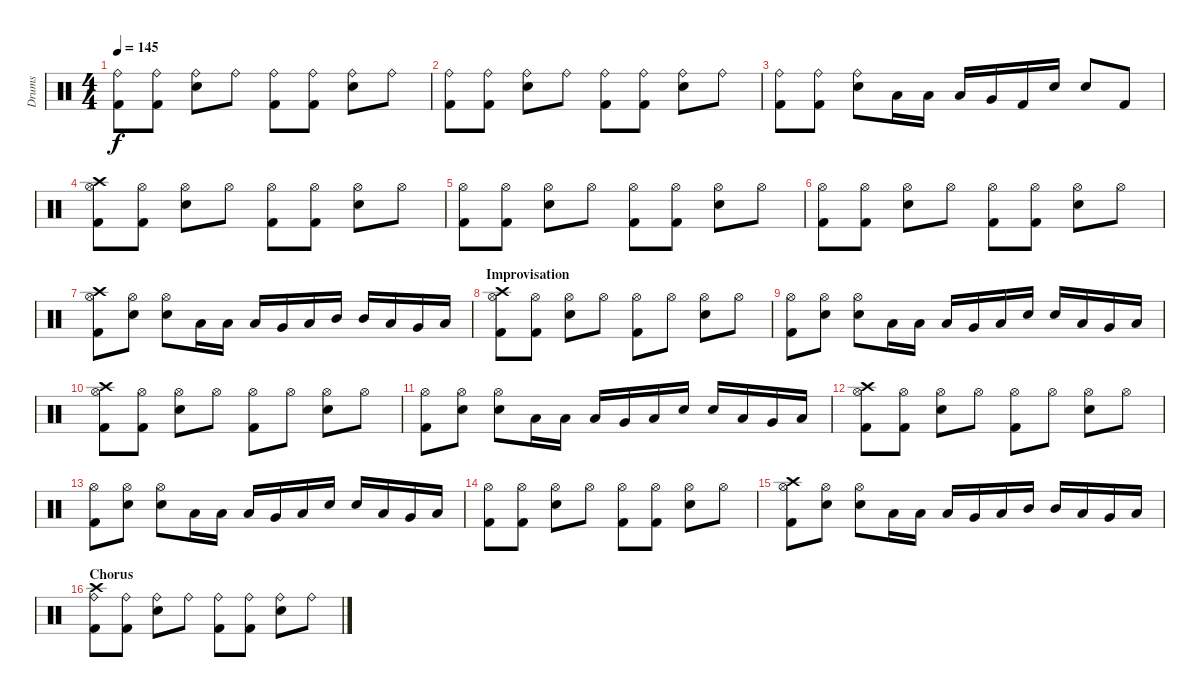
\track ("Drums" "Drums") {instrument percussion}
\staff {score}
\articulation defaults
\ts (4 4)
\tempo 145
\clef neutral
\ks c
("Ride (bell)" "Kick (hit) 2").8{dy f} ("Ride (bell)" "Kick (hit) 2").8 ("Ride (bell)" "Electric Snare (hit)").8 "Ride (bell)".8 ("Ride (bell)" "Kick (hit) 2").8 ("Ride (bell)" "Kick (hit) 2").8 ("Ride (bell)" "Electric Snare (hit)").8 "Ride (bell)".8 |
("Ride (bell)" "Kick (hit) 2").8 ("Ride (bell)" "Kick (hit) 2").8 ("Ride (bell)" "Electric Snare (hit)").8 "Ride (bell)".8 ("Ride (bell)" "Kick (hit) 2").8 ("Ride (bell)" "Kick (hit) 2").8 ("Ride (bell)" "Electric Snare (hit)").8 "Ride (bell)".8 |
("Ride (bell)" "Kick (hit) 2").8 ("Ride (bell)" "Kick (hit) 2").8 ("Ride (bell)" "Electric Snare (hit)").8 "Low Floor Tom (hit)".16 "Low Floor Tom (hit)".16 "Low Floor Tom (hit)".16 "Very Low Tom (hit)".16 "Kick (hit) 2".16 "Electric Snare (hit)".16 "Electric Snare (hit)".8 "Kick (hit) 2".8 |
("Crash high (hit)" "Hi-Hat (open)" "Kick (hit) 2").8 ("Hi-Hat (open)" "Kick (hit) 2").8 ("Hi-Hat (open)" "Electric Snare (hit)").8 "Hi-Hat (open)".8 ("Hi-Hat (open)" "Kick (hit) 2").8 ("Hi-Hat (open)" "Kick (hit) 2").8 ("Hi-Hat (open)" "Electric Snare (hit)").8 "Hi-Hat (open)".8 |
("Hi-Hat (open)" "Kick (hit) 2").8 ("Hi-Hat (open)" "Kick (hit) 2").8 ("Hi-Hat (open)" "Electric Snare (hit)").8 "Hi-Hat (open)".8 ("Hi-Hat (open)" "Kick (hit) 2").8 ("Hi-Hat (open)" "Kick (hit) 2").8 ("Hi-Hat (open)" "Electric Snare (hit)").8 "Hi-Hat (open)".8 |
("Hi-Hat (open)" "Kick (hit) 2").8 ("Hi-Hat (open)" "Kick (hit) 2").8 ("Hi-Hat (open)" "Electric Snare (hit)").8 "Hi-Hat (open)".8 ("Hi-Hat (open)" "Kick (hit) 2").8 ("Hi-Hat (open)" "Kick (hit) 2").8 ("Hi-Hat (open)" "Electric Snare (hit)").8 "Hi-Hat (open)".8 |
("Crash high (hit)" "Hi-Hat (open)" "Kick (hit) 2").8 ("Hi-Hat (open)" "Electric Snare (hit)").8 ("Hi-Hat (open)" "Electric Snare (hit)").8 "Low Floor Tom (hit)".16 "Low Floor Tom (hit)".16 "Low Floor Tom (hit)".16 "Very Low Tom (hit)".16 "Low Tom (hit)".16 "Mid Tom (hit)".16 "Mid Tom (hit)".16 "Low Tom (hit)".16 "Very Low Tom (hit)".16 "Low Floor Tom (hit)".16 |
\section ("" "Improvisation")
("Crash high (hit)" "Hi-Hat (open)" "Kick (hit) 2").8 ("Hi-Hat (open)" "Kick (hit) 2").8 ("Hi-Hat (open)" "Electric Snare (hit)").8 "Hi-Hat (open)".8 ("Hi-Hat (open)" "Kick (hit) 2").8 "Hi-Hat (open)".8 ("Hi-Hat (open)" "Electric Snare (hit)").8 "Hi-Hat (open)".8 |
("Hi-Hat (open)" "Kick (hit) 2").8 ("Hi-Hat (open)" "Electric Snare (hit)").8 ("Hi-Hat (open)" "Electric Snare (hit)").8 "Low Floor Tom (hit)".16 "Low Floor Tom (hit)".16 "Low Floor Tom (hit)".16 "Very Low Tom (hit)".16 "Low Tom (hit)".16 "Electric Snare (hit)".16 "Electric Snare (hit)".16 "Low Tom (hit)".16 "Very Low Tom (hit)".16 "Low Floor Tom (hit)".16 |
("Crash high (hit)" "Hi-Hat (open)" "Kick (hit) 2").8 ("Hi-Hat (open)" "Kick (hit) 2").8 ("Hi-Hat (open)" "Electric Snare (hit)").8 "Hi-Hat (open)".8 ("Hi-Hat (open)" "Kick (hit) 2").8 "Hi-Hat (open)".8 ("Hi-Hat (open)" "Electric Snare (hit)").8 "Hi-Hat (open)".8 |
("Hi-Hat (open)" "Kick (hit) 2").8 ("Hi-Hat (open)" "Electric Snare (hit)").8 ("Hi-Hat (open)" "Electric Snare (hit)").8 "Low Floor Tom (hit)".16 "Low Floor Tom (hit)".16 "Low Floor Tom (hit)".16 "Very Low Tom (hit)".16 "Low Tom (hit)".16 "Electric Snare (hit)".16 "Electric Snare (hit)".16 "Low Tom (hit)".16 "Very Low Tom (hit)".16 "Low Floor Tom (hit)".16 |
("Crash high (hit)" "Hi-Hat (open)" "Kick (hit) 2").8 ("Hi-Hat (open)" "Kick (hit) 2").8 ("Hi-Hat (open)" "Electric Snare (hit)").8 "Hi-Hat (open)".8 ("Hi-Hat (open)" "Kick (hit) 2").8 "Hi-Hat (open)".8 ("Hi-Hat (open)" "Electric Snare (hit)").8 "Hi-Hat (open)".8 |
("Hi-Hat (open)" "Kick (hit) 2").8 ("Hi-Hat (open)" "Electric Snare (hit)").8 ("Hi-Hat (open)" "Electric Snare (hit)").8 "Low Floor Tom (hit)".16 "Low Floor Tom (hit)".16 "Low Floor Tom (hit)".16 "Very Low Tom (hit)".16 "Low Tom (hit)".16 "Electric Snare (hit)".16 "Electric Snare (hit)".16 "Low Tom (hit)".16 "Very Low Tom (hit)".16 "Low Floor Tom (hit)".16 |
("Hi-Hat (open)" "Kick (hit) 2").8 ("Hi-Hat (open)" "Kick (hit) 2").8 ("Hi-Hat (open)" "Electric Snare (hit)").8 "Hi-Hat (open)".8 ("Hi-Hat (open)" "Kick (hit) 2").8 ("Hi-Hat (open)" "Kick (hit) 2").8 ("Hi-Hat (open)" "Electric Snare (hit)").8 "Hi-Hat (open)".8 |
("Crash high (hit)" "Hi-Hat (open)" "Kick (hit) 2").8 ("Hi-Hat (open)" "Electric Snare (hit)").8 ("Hi-Hat (open)" "Electric Snare (hit)").8 "Low Floor Tom (hit)".16 "Low Floor Tom (hit)".16 "Low Floor Tom (hit)".16 "Very Low Tom (hit)".16 "Low Tom (hit)".16 "Mid Tom (hit)".16 "Mid Tom (hit)".16 "Low Tom (hit)".16 "Very Low Tom (hit)".16 "Low Floor Tom (hit)".16 |
\section ("" "Chorus")
("Crash high (hit)" "Ride (bell)" "Kick (hit) 2").8 ("Ride (bell)" "Kick (hit) 2").8 ("Ride (bell)" "Electric Snare (hit)").8 "Ride (bell)".8 ("Ride (bell)" "Kick (hit) 2").8 ("Ride (bell)" "Kick (hit) 2").8 ("Ride (bell)" "Electric Snare (hit)").8 "Ride (bell)".8
